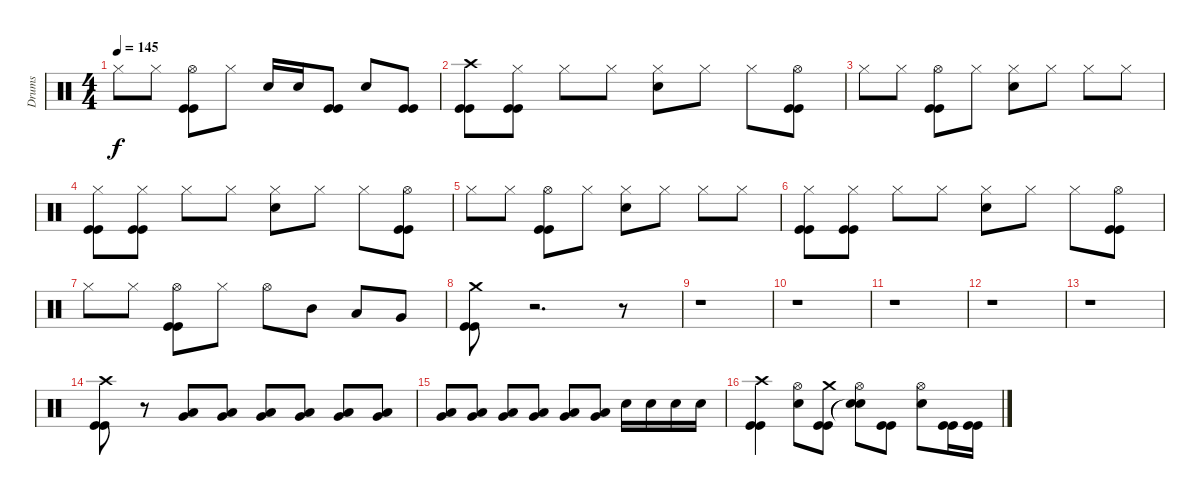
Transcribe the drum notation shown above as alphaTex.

\track ("Drums" "Drums") {instrument percussion}
\staff {score}
\articulation defaults
\ts (4 4)
\tempo 145
\clef neutral
\ks c "Hi-Hat (closed)".8{dy f} "Hi-Hat (closed)".8
("Kick (hit)" "Kick (hit)" "Hi-Hat (open)").8 "Hi-Hat (closed)".8 "Snare (hit) 2".16 "Snare (hit) 2".16 ("Kick (hit)" "Kick (hit)").8 "Snare (hit) 2".8 ("Kick (hit)" "Kick (hit)").8 |
("Kick (hit)" "Kick (hit)" "Crash high (hit)").8 ("Kick (hit)" "Kick (hit)" "Hi-Hat (closed)").8 "Hi-Hat (closed)".8 "Hi-Hat (closed)".8 ("Snare (hit) 2" "Hi-Hat (closed)").8 "Hi-Hat (closed)".8 "Hi-Hat (closed)".8 ("Kick (hit)" "Kick (hit)" "Hi-Hat (open)").8 |
"Hi-Hat (closed)".8 "Hi-Hat (closed)".8 ("Kick (hit)" "Kick (hit)" "Hi-Hat (open)").8 "Hi-Hat (closed)".8 ("Snare (hit) 2" "Hi-Hat (closed)").8 "Hi-Hat (closed)".8 "Hi-Hat (closed)".8 "Hi-Hat (closed)".8 |
("Kick (hit)" "Kick (hit)" "Hi-Hat (closed)").8 ("Kick (hit)" "Kick (hit)" "Hi-Hat (closed)").8 "Hi-Hat (closed)".8 "Hi-Hat (closed)".8 ("Snare (hit) 2" "Hi-Hat (closed)").8 "Hi-Hat (closed)".8 "Hi-Hat (closed)".8 ("Kick (hit)" "Kick (hit)" "Hi-Hat (open)").8 |
"Hi-Hat (closed)".8 "Hi-Hat (closed)".8 ("Kick (hit)" "Kick (hit)" "Hi-Hat (open)").8 "Hi-Hat (closed)".8 ("Snare (hit) 2" "Hi-Hat (closed)").8 "Hi-Hat (closed)".8 "Hi-Hat (closed)".8 "Hi-Hat (closed)".8 |
("Kick (hit)" "Kick (hit)" "Hi-Hat (closed)").8 ("Kick (hit)" "Kick (hit)" "Hi-Hat (closed)").8 "Hi-Hat (closed)".8 "Hi-Hat (closed)".8 ("Snare (hit) 2" "Hi-Hat (closed)").8 "Hi-Hat (closed)".8 "Hi-Hat (closed)".8 ("Kick (hit)" "Kick (hit)" "Hi-Hat (open)").8 |
"Hi-Hat (closed)".8 "Hi-Hat (closed)".8 ("Kick (hit)" "Kick (hit)" "Hi-Hat (open)").8 "Hi-Hat (closed)".8 "Hi-Hat (open)".8 "Mid Tom (hit)".8 "Low Tom (hit)".8 "Very Low Tom (hit)".8 |
("Kick (hit)" "Kick (hit)" "Crash medium (hit)").8 r.2{d} r.8 |
r.1 |
r.1 |
r.1 |
r.1 |
r.1 |
("Kick (hit)" "Kick (hit)" "Crash high (hit)").8 r.8 ("Low Floor Tom (hit)" "Very Low Tom (hit)").8 ("Low Floor Tom (hit)" "Very Low Tom (hit)").8 ("Low Floor Tom (hit)" "Very Low Tom (hit)").8 ("Low Floor Tom (hit)" "Very Low Tom (hit)").8 ("Low Floor Tom (hit)" "Very Low Tom (hit)").8 ("Low Floor Tom (hit)" "Very Low Tom (hit)").8 |
("Low Floor Tom (hit)" "Very Low Tom (hit)").8 ("Low Floor Tom (hit)" "Very Low Tom (hit)").8 ("Low Floor Tom (hit)" "Very Low Tom (hit)").8 ("Low Floor Tom (hit)" "Very Low Tom (hit)").8 ("Low Floor Tom (hit)" "Very Low Tom (hit)").8 ("Low Floor Tom (hit)" "Very Low Tom (hit)").8 "Snare (hit) 2".16 "Snare (hit) 2".16 "Snare (hit) 2".16 "Snare (hit) 2".16 |
("Kick (hit)" "Kick (hit)" "Crash high (hit)").4 ("Snare (hit) 2" "Hi-Hat (open)").8 ("Kick (hit)" "Kick (hit)" "Crash medium (hit)").8 ("Snare (hit)"{t} "Snare (hit)"{t} "Hi-Hat (open)").8 ("Kick (hit)" "Kick (hit)").8 ("Snare (hit) 2" "Hi-Hat (open)").8 ("Kick (hit)" "Kick (hit)").16 ("Kick (hit)" "Kick (hit)").16
